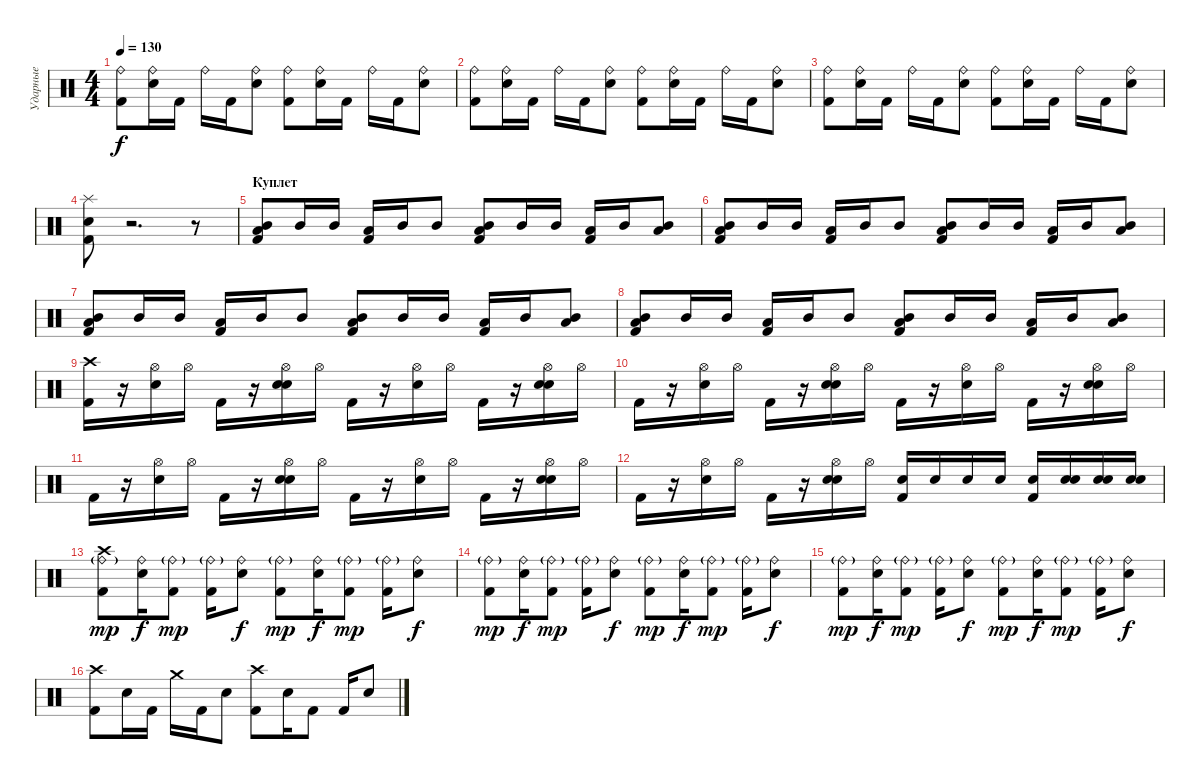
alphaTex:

\track ("Ударные" "Ударные") {instrument percussion}
\staff {score}
\articulation defaults
\ts (4 4)
\tempo 130
\clef neutral
\ks c
("Ride (bell)" "Kick (hit) 2").8{dy f} ("Ride (bell)" "Snare (hit) 2").16 "Kick (hit) 2".16 "Ride (bell)".16 "Kick (hit) 2".16 ("Ride (bell)" "Snare (hit) 2").8 ("Ride (bell)" "Kick (hit) 2").8 ("Ride (bell)" "Snare (hit) 2").16 "Kick (hit) 2".16 "Ride (bell)".16 "Kick (hit) 2".16 ("Ride (bell)" "Snare (hit) 2").8 |
("Ride (bell)" "Kick (hit) 2").8 ("Ride (bell)" "Snare (hit) 2").16 "Kick (hit) 2".16 "Ride (bell)".16 "Kick (hit) 2".16 ("Ride (bell)" "Snare (hit) 2").8 ("Ride (bell)" "Kick (hit) 2").8 ("Ride (bell)" "Snare (hit) 2").16 "Kick (hit) 2".16 "Ride (bell)".16 "Kick (hit) 2".16 ("Ride (bell)" "Snare (hit) 2").8 |
("Ride (bell)" "Kick (hit) 2").8 ("Ride (bell)" "Snare (hit) 2").16 "Kick (hit) 2".16 "Ride (bell)".16 "Kick (hit) 2".16 ("Ride (bell)" "Snare (hit) 2").8 ("Ride (bell)" "Kick (hit) 2").8 ("Ride (bell)" "Snare (hit) 2").16 "Kick (hit) 2".16 "Ride (bell)".16 "Kick (hit) 2".16 ("Ride (bell)" "Snare (hit) 2").8 |
("Splash (hit)" "Snare (hit) 2" "Kick (hit) 2").8 r.2{d} r.8 |
\section ("" "Куплет")
("Low Tom (hit)" "Mid Tom (hit)" "Kick (hit) 2").8 "Mid Tom (hit)".16 "Mid Tom (hit)".16 ("Low Tom (hit)" "Kick (hit) 2").16 "Mid Tom (hit)".16 "Mid Tom (hit)".8 ("Low Tom (hit)" "Mid Tom (hit)" "Kick (hit) 2").8 "Mid Tom (hit)".16 "Mid Tom (hit)".16 ("Low Tom (hit)" "Kick (hit) 2").16 "Mid Tom (hit)".16 ("Low Tom (hit)" "Mid Tom (hit)").8 |
("Low Tom (hit)" "Mid Tom (hit)" "Kick (hit) 2").8 "Mid Tom (hit)".16 "Mid Tom (hit)".16 ("Low Tom (hit)" "Kick (hit) 2").16 "Mid Tom (hit)".16 "Mid Tom (hit)".8 ("Low Tom (hit)" "Mid Tom (hit)" "Kick (hit) 2").8 "Mid Tom (hit)".16 "Mid Tom (hit)".16 ("Low Tom (hit)" "Kick (hit) 2").16 "Mid Tom (hit)".16 ("Low Tom (hit)" "Mid Tom (hit)").8 |
("Low Tom (hit)" "Mid Tom (hit)" "Kick (hit) 2").8 "Mid Tom (hit)".16 "Mid Tom (hit)".16 ("Low Tom (hit)" "Kick (hit) 2").16 "Mid Tom (hit)".16 "Mid Tom (hit)".8 ("Low Tom (hit)" "Mid Tom (hit)" "Kick (hit) 2").8 "Mid Tom (hit)".16 "Mid Tom (hit)".16 ("Low Tom (hit)" "Kick (hit) 2").16 "Mid Tom (hit)".16 ("Low Tom (hit)" "Mid Tom (hit)").8 |
("Low Tom (hit)" "Mid Tom (hit)" "Kick (hit) 2").8 "Mid Tom (hit)".16 "Mid Tom (hit)".16 ("Low Tom (hit)" "Kick (hit) 2").16 "Mid Tom (hit)".16 "Mid Tom (hit)".8 ("Low Tom (hit)" "Mid Tom (hit)" "Kick (hit) 2").8 "Mid Tom (hit)".16 "Mid Tom (hit)".16 ("Low Tom (hit)" "Kick (hit) 2").16 "Mid Tom (hit)".16 ("Low Tom (hit)" "Mid Tom (hit)").8 |
("Crash high (hit)" "Kick (hit) 2").16 r.16 ("Hi-Hat (open)" "Snare (hit) 2").16 "Hi-Hat (open)".16 "Kick (hit) 2".16 r.16 ("Hi-Hat (open)" "Electric Snare (hit)" "Snare (hit) 2").16 "Hi-Hat (open)".16 "Kick (hit) 2".16 r.16 ("Hi-Hat (open)" "Snare (hit) 2").16 "Hi-Hat (open)".16 "Kick (hit) 2".16 r.16 ("Hi-Hat (open)" "Electric Snare (hit)" "Snare (hit) 2").16 "Hi-Hat (open)".16 |
"Kick (hit) 2".16 r.16 ("Hi-Hat (open)" "Snare (hit) 2").16 "Hi-Hat (open)".16 "Kick (hit) 2".16 r.16 ("Hi-Hat (open)" "Electric Snare (hit)" "Snare (hit) 2").16 "Hi-Hat (open)".16 "Kick (hit) 2".16 r.16 ("Hi-Hat (open)" "Snare (hit) 2").16 "Hi-Hat (open)".16 "Kick (hit) 2".16 r.16 ("Hi-Hat (open)" "Electric Snare (hit)" "Snare (hit) 2").16 "Hi-Hat (open)".16 |
"Kick (hit) 2".16 r.16 ("Hi-Hat (open)" "Snare (hit) 2").16 "Hi-Hat (open)".16 "Kick (hit) 2".16 r.16 ("Hi-Hat (open)" "Electric Snare (hit)" "Snare (hit) 2").16 "Hi-Hat (open)".16 "Kick (hit) 2".16 r.16 ("Hi-Hat (open)" "Snare (hit) 2").16 "Hi-Hat (open)".16 "Kick (hit) 2".16 r.16 ("Hi-Hat (open)" "Electric Snare (hit)" "Snare (hit) 2").16 "Hi-Hat (open)".16 |
"Kick (hit) 2".16 r.16 ("Hi-Hat (open)" "Snare (hit) 2").16 "Hi-Hat (open)".16 "Kick (hit) 2".16 r.16 ("Hi-Hat (open)" "Electric Snare (hit)" "Snare (hit) 2").16 "Hi-Hat (open)".16 ("Snare (hit) 2" "Kick (hit) 2").16 "Snare (hit) 2".16 "Snare (hit) 2".16 "Snare (hit) 2".16 ("Snare (hit) 2" "Kick (hit) 2").16 ("Snare (hit) 2" "Snare (hit) 2").16 ("Snare (hit) 2" "Snare (hit) 2").16 ("Snare (hit) 2" "Snare (hit) 2").16 |
("Crash high (hit)" "Ride (bell)"{g} "Kick (hit) 2").8{dy mp} ("Snare (hit) 2" "Ride (bell)").16{dy f} ("Ride (bell)"{g} "Kick (hit) 2").8{dy mp} ("Ride (bell)"{g} "Kick (hit) 2").16 ("Snare (hit) 2" "Ride (bell)").8{dy f} ("Ride (bell)"{g} "Kick (hit) 2").8{dy mp} ("Snare (hit) 2" "Ride (bell)").16{dy f} ("Ride (bell)"{g} "Kick (hit) 2").8{dy mp} ("Ride (bell)"{g} "Kick (hit) 2").16 ("Snare (hit) 2" "Ride (bell)").8{dy f} |
("Ride (bell)"{g} "Kick (hit) 2").8{dy mp} ("Snare (hit) 2" "Ride (bell)").16{dy f} ("Ride (bell)"{g} "Kick (hit) 2").8{dy mp} ("Ride (bell)"{g} "Kick (hit) 2").16 ("Snare (hit) 2" "Ride (bell)").8{dy f} ("Ride (bell)"{g} "Kick (hit) 2").8{dy mp} ("Snare (hit) 2" "Ride (bell)").16{dy f} ("Ride (bell)"{g} "Kick (hit) 2").8{dy mp} ("Ride (bell)"{g} "Kick (hit) 2").16 ("Snare (hit) 2" "Ride (bell)").8{dy f} |
("Ride (bell)"{g} "Kick (hit) 2").8{dy mp} ("Snare (hit) 2" "Ride (bell)").16{dy f} ("Ride (bell)"{g} "Kick (hit) 2").8{dy mp} ("Ride (bell)"{g} "Kick (hit) 2").16 ("Snare (hit) 2" "Ride (bell)").8{dy f} ("Ride (bell)"{g} "Kick (hit) 2").8{dy mp} ("Snare (hit) 2" "Ride (bell)").16{dy f} ("Ride (bell)"{g} "Kick (hit) 2").8{dy mp} ("Ride (bell)"{g} "Kick (hit) 2").16 ("Snare (hit) 2" "Ride (bell)").8{dy f} |
("Crash high (hit)" "Kick (hit) 2").8 "Snare (hit) 2".16 "Kick (hit) 2".16 "Crash medium (hit)".16 "Kick (hit) 2".16 "Snare (hit) 2".8 ("Crash high (hit)" "Kick (hit) 2").8 "Snare (hit) 2".16 "Kick (hit) 2".8 "Kick (hit) 2".16 "Snare (hit) 2".8
